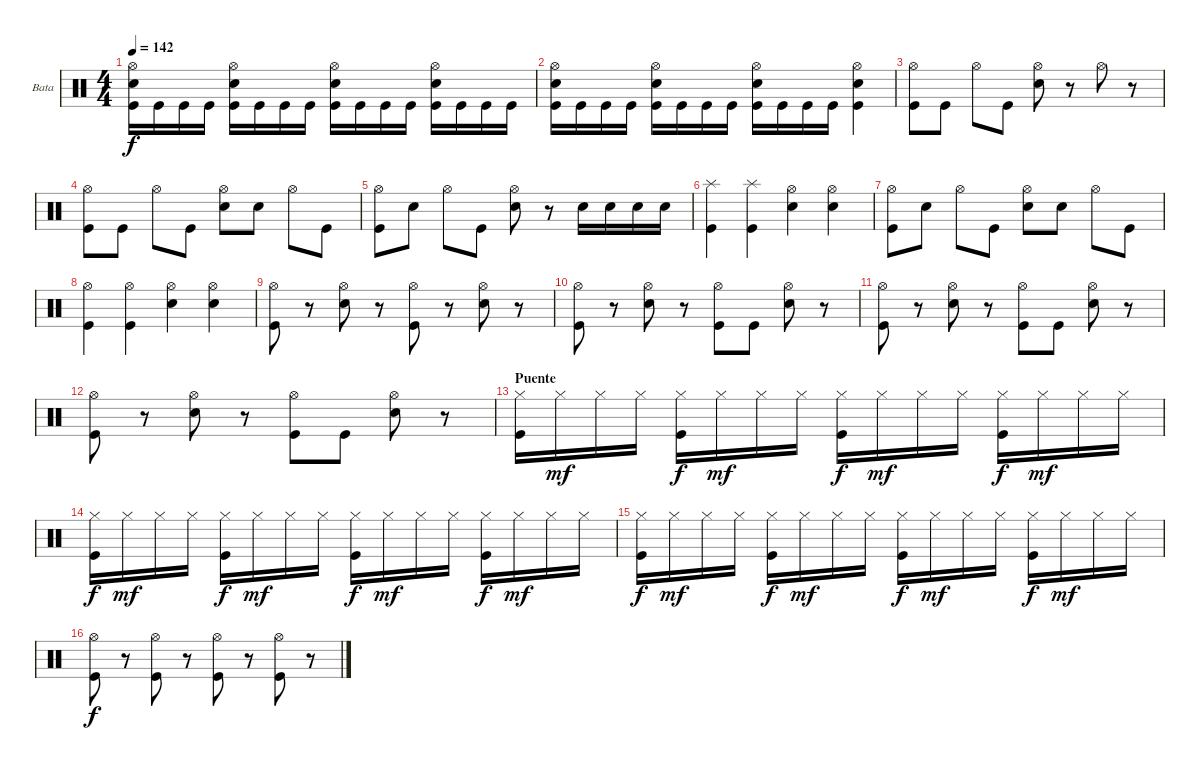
\bracketExtendMode groupsimilarinstruments
\firstSystemTrackNameOrientation horizontal
\otherSystemsTrackNameOrientation horizontal
\track ("Bateria" "Bata") {instrument percussion}
\staff {score}
\articulation defaults
\ts (4 4)
\tempo 142
\clef neutral
\ks c
("Kick (hit)" "Snare (hit) 2" "Hi-Hat (open)").16{dy f} "Kick (hit)".16 "Kick (hit)".16 "Kick (hit)".16 ("Kick (hit)" "Snare (hit) 2" "Hi-Hat (open)").16 "Kick (hit)".16 "Kick (hit)".16 "Kick (hit)".16 ("Kick (hit)" "Snare (hit) 2" "Hi-Hat (open)").16 "Kick (hit)".16 "Kick (hit)".16 "Kick (hit)".16 ("Kick (hit)" "Snare (hit) 2" "Hi-Hat (open)").16 "Kick (hit)".16 "Kick (hit)".16 "Kick (hit)".16 |
("Kick (hit)" "Snare (hit) 2" "Hi-Hat (open)").16 "Kick (hit)".16 "Kick (hit)".16 "Kick (hit)".16 ("Kick (hit)" "Snare (hit) 2" "Hi-Hat (open)").16 "Kick (hit)".16 "Kick (hit)".16 "Kick (hit)".16 ("Kick (hit)" "Snare (hit) 2" "Hi-Hat (open)").16 "Kick (hit)".16 "Kick (hit)".16 "Kick (hit)".16 ("Kick (hit)" "Snare (hit) 2" "Hi-Hat (open)").4 |
("Hi-Hat (open)" "Kick (hit)").8 "Kick (hit)".8 "Hi-Hat (open)".8 "Kick (hit)".8 ("Hi-Hat (open)" "Snare (hit) 2").8 r.8 "Hi-Hat (open)".8 r.8 |
("Hi-Hat (open)" "Kick (hit)").8 "Kick (hit)".8 "Hi-Hat (open)".8 "Kick (hit)".8 ("Hi-Hat (open)" "Snare (hit) 2").8 "Snare (hit) 2".8 "Hi-Hat (open)".8 "Kick (hit)".8 |
("Hi-Hat (open)" "Kick (hit)").8 "Snare (hit) 2".8 "Hi-Hat (open)".8 "Kick (hit)".8 ("Hi-Hat (open)" "Snare (hit) 2").8 r.8 "Snare (hit) 2".16 "Snare (hit) 2".16 "Snare (hit) 2".16 "Snare (hit) 2".16 |
("Kick (hit)" "Splash (hit)").4 ("Kick (hit)" "Splash (hit)").4 ("Snare (hit) 2" "Hi-Hat (open)").4 ("Snare (hit) 2" "Hi-Hat (open)").4 |
("Hi-Hat (open)" "Kick (hit)").8 "Snare (hit) 2".8 "Hi-Hat (open)".8 "Kick (hit)".8 ("Hi-Hat (open)" "Snare (hit) 2").8 "Snare (hit) 2".8 "Hi-Hat (open)".8 "Kick (hit)".8 |
("Kick (hit)" "Hi-Hat (open)").4 ("Kick (hit)" "Hi-Hat (open)").4 ("Snare (hit) 2" "Hi-Hat (open)").4 ("Snare (hit) 2" "Hi-Hat (open)").4 |
("Kick (hit)" "Hi-Hat (open)").8 r.8 ("Hi-Hat (open)" "Snare (hit) 2").8 r.8 ("Hi-Hat (open)" "Kick (hit)").8 r.8 ("Hi-Hat (open)" "Snare (hit) 2").8 r.8 |
("Kick (hit)" "Hi-Hat (open)").8 r.8 ("Hi-Hat (open)" "Snare (hit) 2").8 r.8 ("Hi-Hat (open)" "Kick (hit)").8 "Kick (hit)".8 ("Hi-Hat (open)" "Snare (hit) 2").8 r.8 |
("Kick (hit)" "Hi-Hat (open)").8 r.8 ("Hi-Hat (open)" "Snare (hit) 2").8 r.8 ("Hi-Hat (open)" "Kick (hit)").8 "Kick (hit)".8 ("Hi-Hat (open)" "Snare (hit) 2").8 r.8 |
("Kick (hit)" "Hi-Hat (open)").8 r.8 ("Hi-Hat (open)" "Snare (hit) 2").8 r.8 ("Hi-Hat (open)" "Kick (hit)").8 "Kick (hit)".8 ("Hi-Hat (open)" "Snare (hit) 2").8 r.8 |
\section ("" "Puente")
("Hi-Hat (closed)" "Kick (hit)").16 "Hi-Hat (closed)".16{dy mf} "Hi-Hat (closed)".16 "Hi-Hat (closed)".16 ("Hi-Hat (closed)" "Kick (hit)").16{dy f} "Hi-Hat (closed)".16{dy mf} "Hi-Hat (closed)".16 "Hi-Hat (closed)".16 ("Hi-Hat (closed)" "Kick (hit)").16{dy f} "Hi-Hat (closed)".16{dy mf} "Hi-Hat (closed)".16 "Hi-Hat (closed)".16 ("Hi-Hat (closed)" "Kick (hit)").16{dy f} "Hi-Hat (closed)".16{dy mf} "Hi-Hat (closed)".16 "Hi-Hat (closed)".16 |
("Hi-Hat (closed)" "Kick (hit)").16{dy f} "Hi-Hat (closed)".16{dy mf} "Hi-Hat (closed)".16 "Hi-Hat (closed)".16 ("Hi-Hat (closed)" "Kick (hit)").16{dy f} "Hi-Hat (closed)".16{dy mf} "Hi-Hat (closed)".16 "Hi-Hat (closed)".16 ("Hi-Hat (closed)" "Kick (hit)").16{dy f} "Hi-Hat (closed)".16{dy mf} "Hi-Hat (closed)".16 "Hi-Hat (closed)".16 ("Hi-Hat (closed)" "Kick (hit)").16{dy f} "Hi-Hat (closed)".16{dy mf} "Hi-Hat (closed)".16 "Hi-Hat (closed)".16 |
("Hi-Hat (closed)" "Kick (hit)").16{dy f} "Hi-Hat (closed)".16{dy mf} "Hi-Hat (closed)".16 "Hi-Hat (closed)".16 ("Hi-Hat (closed)" "Kick (hit)").16{dy f} "Hi-Hat (closed)".16{dy mf} "Hi-Hat (closed)".16 "Hi-Hat (closed)".16 ("Hi-Hat (closed)" "Kick (hit)").16{dy f} "Hi-Hat (closed)".16{dy mf} "Hi-Hat (closed)".16 "Hi-Hat (closed)".16 ("Hi-Hat (closed)" "Kick (hit)").16{dy f} "Hi-Hat (closed)".16{dy mf} "Hi-Hat (closed)".16 "Hi-Hat (closed)".16 |
("Kick (hit)" "Hi-Hat (open)").8{dy f} r.8 ("Kick (hit)" "Hi-Hat (open)").8 r.8 ("Kick (hit)" "Hi-Hat (open)").8 r.8 ("Kick (hit)" "Hi-Hat (open)").8 r.8
